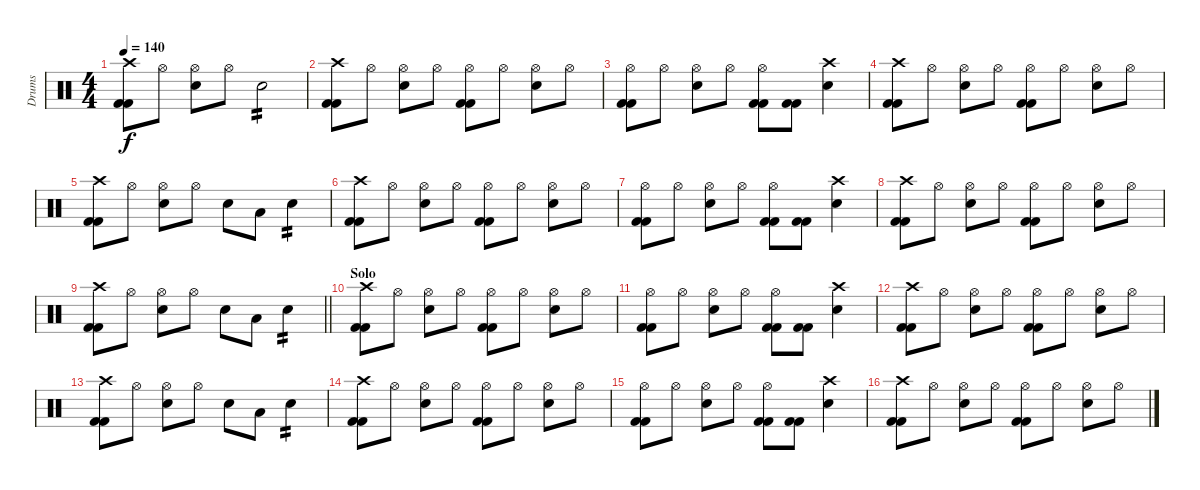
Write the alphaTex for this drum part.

\track ("Drums" "Drums") {instrument percussion}
\staff {score}
\articulation defaults
\ts (4 4)
\tempo 140
\clef neutral
\ks c
("Crash high (hit)" "Kick (hit) 2" "Kick (hit) 2").8{dy f} "Hi-Hat (open)".8 ("Electric Snare (hit)" "Hi-Hat (open)").8 "Hi-Hat (open)".8 "Electric Snare (hit)".2{tp 2} |
("Crash high (hit)" "Kick (hit) 2" "Kick (hit) 2").8 "Hi-Hat (open)".8 ("Electric Snare (hit)" "Hi-Hat (open)").8 "Hi-Hat (open)".8 ("Hi-Hat (open)" "Kick (hit) 2" "Kick (hit) 2").8 "Hi-Hat (open)".8 ("Electric Snare (hit)" "Hi-Hat (open)").8 "Hi-Hat (open)".8 |
("Hi-Hat (open)" "Kick (hit) 2" "Kick (hit) 2").8 "Hi-Hat (open)".8 ("Electric Snare (hit)" "Hi-Hat (open)").8 "Hi-Hat (open)".8 ("Hi-Hat (open)" "Kick (hit) 2" "Kick (hit) 2").8 ("Kick (hit) 2" "Kick (hit) 2").8 ("Electric Snare (hit)" "Crash high (hit)").4 |
("Crash high (hit)" "Kick (hit) 2" "Kick (hit) 2").8 "Hi-Hat (open)".8 ("Electric Snare (hit)" "Hi-Hat (open)").8 "Hi-Hat (open)".8 ("Hi-Hat (open)" "Kick (hit) 2" "Kick (hit) 2").8 "Hi-Hat (open)".8 ("Electric Snare (hit)" "Hi-Hat (open)").8 "Hi-Hat (open)".8 |
("Crash high (hit)" "Kick (hit) 2" "Kick (hit) 2").8 "Hi-Hat (open)".8 ("Electric Snare (hit)" "Hi-Hat (open)").8 "Hi-Hat (open)".8 "Electric Snare (hit)".8 "Low Tom (hit)".8 "Electric Snare (hit)".4{tp 2} |
("Crash high (hit)" "Kick (hit) 2" "Kick (hit) 2").8 "Hi-Hat (open)".8 ("Electric Snare (hit)" "Hi-Hat (open)").8 "Hi-Hat (open)".8 ("Hi-Hat (open)" "Kick (hit) 2" "Kick (hit) 2").8 "Hi-Hat (open)".8 ("Electric Snare (hit)" "Hi-Hat (open)").8 "Hi-Hat (open)".8 |
("Hi-Hat (open)" "Kick (hit) 2" "Kick (hit) 2").8 "Hi-Hat (open)".8 ("Electric Snare (hit)" "Hi-Hat (open)").8 "Hi-Hat (open)".8 ("Hi-Hat (open)" "Kick (hit) 2" "Kick (hit) 2").8 ("Kick (hit) 2" "Kick (hit) 2").8 ("Electric Snare (hit)" "Crash high (hit)").4 |
("Crash high (hit)" "Kick (hit) 2" "Kick (hit) 2").8 "Hi-Hat (open)".8 ("Electric Snare (hit)" "Hi-Hat (open)").8 "Hi-Hat (open)".8 ("Hi-Hat (open)" "Kick (hit) 2" "Kick (hit) 2").8 "Hi-Hat (open)".8 ("Electric Snare (hit)" "Hi-Hat (open)").8 "Hi-Hat (open)".8 |
\barLineRight lightlight
("Crash high (hit)" "Kick (hit) 2" "Kick (hit) 2").8 "Hi-Hat (open)".8 ("Electric Snare (hit)" "Hi-Hat (open)").8 "Hi-Hat (open)".8 "Electric Snare (hit)".8 "Low Tom (hit)".8 "Electric Snare (hit)".4{tp 2} |
\section ("" "Solo")
("Crash high (hit)" "Kick (hit) 2" "Kick (hit) 2").8 "Hi-Hat (open)".8 ("Electric Snare (hit)" "Hi-Hat (open)").8 "Hi-Hat (open)".8 ("Hi-Hat (open)" "Kick (hit) 2" "Kick (hit) 2").8 "Hi-Hat (open)".8 ("Electric Snare (hit)" "Hi-Hat (open)").8 "Hi-Hat (open)".8 |
("Hi-Hat (open)" "Kick (hit) 2" "Kick (hit) 2").8 "Hi-Hat (open)".8 ("Electric Snare (hit)" "Hi-Hat (open)").8 "Hi-Hat (open)".8 ("Hi-Hat (open)" "Kick (hit) 2" "Kick (hit) 2").8 ("Kick (hit) 2" "Kick (hit) 2").8 ("Electric Snare (hit)" "Crash high (hit)").4 |
("Crash high (hit)" "Kick (hit) 2" "Kick (hit) 2").8 "Hi-Hat (open)".8 ("Electric Snare (hit)" "Hi-Hat (open)").8 "Hi-Hat (open)".8 ("Hi-Hat (open)" "Kick (hit) 2" "Kick (hit) 2").8 "Hi-Hat (open)".8 ("Electric Snare (hit)" "Hi-Hat (open)").8 "Hi-Hat (open)".8 |
("Crash high (hit)" "Kick (hit) 2" "Kick (hit) 2").8 "Hi-Hat (open)".8 ("Electric Snare (hit)" "Hi-Hat (open)").8 "Hi-Hat (open)".8 "Electric Snare (hit)".8 "Low Tom (hit)".8 "Electric Snare (hit)".4{tp 2} |
("Crash high (hit)" "Kick (hit) 2" "Kick (hit) 2").8 "Hi-Hat (open)".8 ("Electric Snare (hit)" "Hi-Hat (open)").8 "Hi-Hat (open)".8 ("Hi-Hat (open)" "Kick (hit) 2" "Kick (hit) 2").8 "Hi-Hat (open)".8 ("Electric Snare (hit)" "Hi-Hat (open)").8 "Hi-Hat (open)".8 |
("Hi-Hat (open)" "Kick (hit) 2" "Kick (hit) 2").8 "Hi-Hat (open)".8 ("Electric Snare (hit)" "Hi-Hat (open)").8 "Hi-Hat (open)".8 ("Hi-Hat (open)" "Kick (hit) 2" "Kick (hit) 2").8 ("Kick (hit) 2" "Kick (hit) 2").8 ("Electric Snare (hit)" "Crash high (hit)").4 |
("Crash high (hit)" "Kick (hit) 2" "Kick (hit) 2").8 "Hi-Hat (open)".8 ("Electric Snare (hit)" "Hi-Hat (open)").8 "Hi-Hat (open)".8 ("Hi-Hat (open)" "Kick (hit) 2" "Kick (hit) 2").8 "Hi-Hat (open)".8 ("Electric Snare (hit)" "Hi-Hat (open)").8 "Hi-Hat (open)".8
